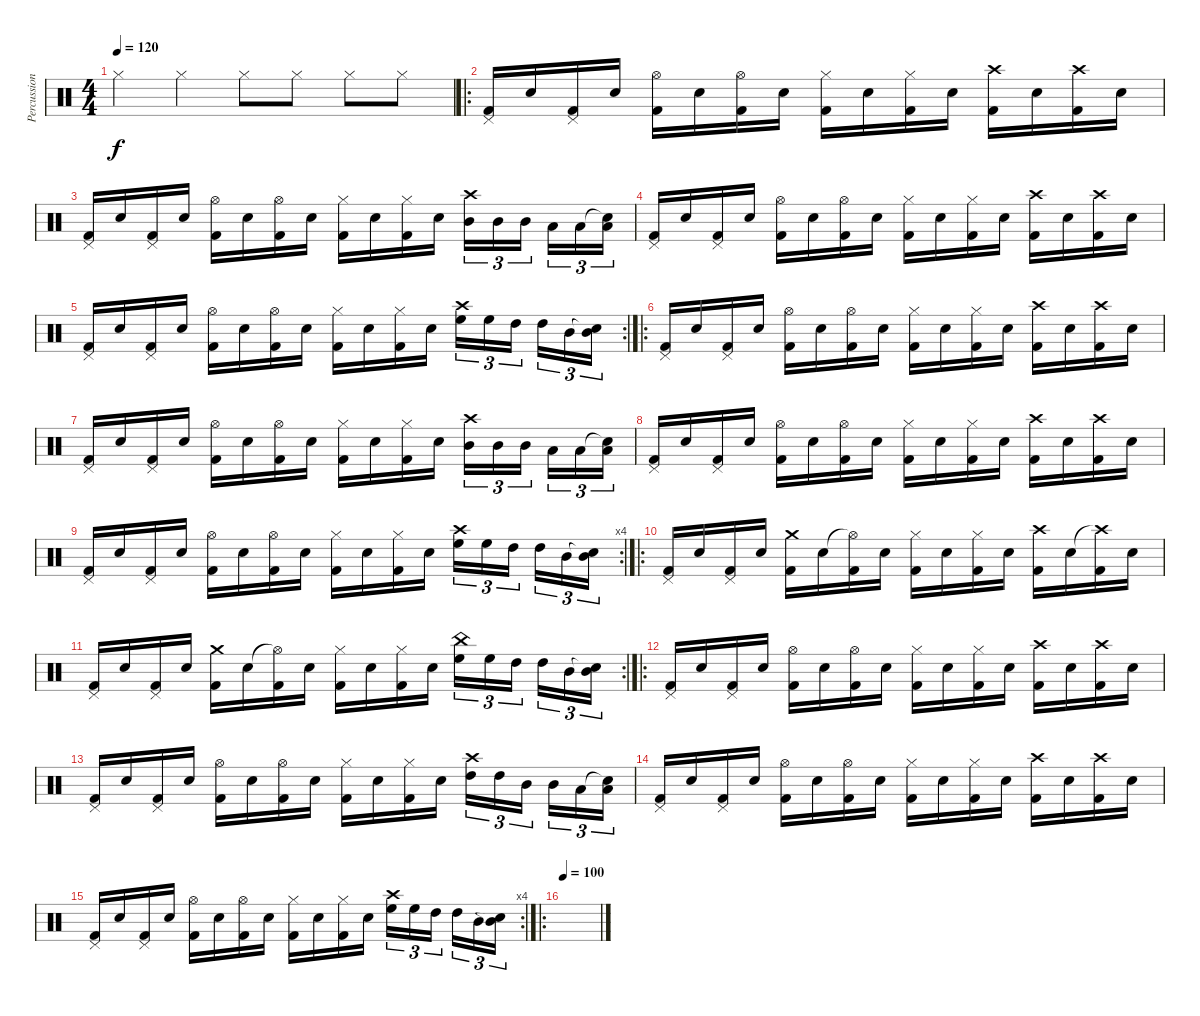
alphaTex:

\track ("Percussion" "Percussion") {instrument percussion}
\staff {score}
\articulation defaults
\ts (4 4)
\tempo 120
\clef neutral
\ks c "Hi-Hat (closed)".4{dy f} "Hi-Hat (closed)".4 "Hi-Hat (closed)".8 "Hi-Hat (closed)".8 "Hi-Hat (closed)".8 "Hi-Hat (closed)".8
|
\ro
("Pedal Hi-Hat (hit)" "Kick (hit) 2").16 "Snare (hit) 2".16 ("Pedal Hi-Hat (hit)" "Kick (hit) 2").16 "Snare (hit) 2".16 ("Hi-Hat (open)" "Kick (hit) 2").16 "Snare (hit) 2".16 ("Hi-Hat (open)" "Kick (hit) 2").16 "Snare (hit) 2".16 ("Hi-Hat (closed)" "Kick (hit) 2").16 "Snare (hit) 2".16 ("Hi-Hat (closed)" "Kick (hit) 2").16 "Snare (hit) 2".16 ("Crash high (hit)" "Kick (hit) 2").16 "Snare (hit) 2".16 ("Crash high (hit)" "Kick (hit) 2").16 "Snare (hit) 2".16 |
("Pedal Hi-Hat (hit)" "Kick (hit) 2").16 "Snare (hit) 2".16 ("Pedal Hi-Hat (hit)" "Kick (hit) 2").16 "Snare (hit) 2".16 ("Hi-Hat (open)" "Kick (hit) 2").16 "Snare (hit) 2".16 ("Hi-Hat (open)" "Kick (hit) 2").16 "Snare (hit) 2".16 ("Hi-Hat (closed)" "Kick (hit) 2").16 "Snare (hit) 2".16 ("Hi-Hat (closed)" "Kick (hit) 2").16 "Snare (hit) 2".16 ("Crash high (hit)" "Mid Tom (hit)").16{tu (3 2)} "Mid Tom (hit)".16{tu (3 2)} "Mid Tom (hit)".16{tu (3 2)} "Low Tom (hit)".16{tu (3 2)} "Low Tom (hit)".16{tu (3 2)} ("Snare (hit)"{t} "Low Tom (hit)").16{tu (3 2)} |
("Pedal Hi-Hat (hit)" "Kick (hit) 2").16 "Snare (hit) 2".16 ("Pedal Hi-Hat (hit)" "Kick (hit) 2").16 "Snare (hit) 2".16 ("Hi-Hat (open)" "Kick (hit) 2").16 "Snare (hit) 2".16 ("Hi-Hat (open)" "Kick (hit) 2").16 "Snare (hit) 2".16 ("Hi-Hat (closed)" "Kick (hit) 2").16 "Snare (hit) 2".16 ("Hi-Hat (closed)" "Kick (hit) 2").16 "Snare (hit) 2".16 ("Crash high (hit)" "Kick (hit) 2").16 "Snare (hit) 2".16 ("Crash high (hit)" "Kick (hit) 2").16 "Snare (hit) 2".16 |
\rc 2
("Pedal Hi-Hat (hit)" "Kick (hit) 2").16 "Snare (hit) 2".16 ("Pedal Hi-Hat (hit)" "Kick (hit) 2").16 "Snare (hit) 2".16 ("Hi-Hat (open)" "Kick (hit) 2").16 "Snare (hit) 2".16 ("Hi-Hat (open)" "Kick (hit) 2").16 "Snare (hit) 2".16 ("Hi-Hat (closed)" "Kick (hit) 2").16 "Snare (hit) 2".16 ("Hi-Hat (closed)" "Kick (hit) 2").16 "Snare (hit) 2".16 ("Crash high (hit)" "High Floor Tom (hit)").16{tu (3 2)} "High Floor Tom (hit)".16{tu (3 2)} "High Tom (hit)".16{tu (3 2)} "High Tom (hit)".16{tu (3 2)} "Mid Tom (hit)".16{tu (3 2)} ("Snare (hit)"{t} "Mid Tom (hit)").16{tu (3 2)} |
\ro
("Pedal Hi-Hat (hit)" "Kick (hit) 2").16 "Snare (hit) 2".16 ("Pedal Hi-Hat (hit)" "Kick (hit) 2").16 "Snare (hit) 2".16 ("Hi-Hat (open)" "Kick (hit) 2").16 "Snare (hit) 2".16 ("Hi-Hat (open)" "Kick (hit) 2").16 "Snare (hit) 2".16 ("Hi-Hat (closed)" "Kick (hit) 2").16 "Snare (hit) 2".16 ("Hi-Hat (closed)" "Kick (hit) 2").16 "Snare (hit) 2".16 ("Crash high (hit)" "Kick (hit) 2").16 "Snare (hit) 2".16 ("Crash high (hit)" "Kick (hit) 2").16 "Snare (hit) 2".16 |
("Pedal Hi-Hat (hit)" "Kick (hit) 2").16 "Snare (hit) 2".16 ("Pedal Hi-Hat (hit)" "Kick (hit) 2").16 "Snare (hit) 2".16 ("Hi-Hat (open)" "Kick (hit) 2").16 "Snare (hit) 2".16 ("Hi-Hat (open)" "Kick (hit) 2").16 "Snare (hit) 2".16 ("Hi-Hat (closed)" "Kick (hit) 2").16 "Snare (hit) 2".16 ("Hi-Hat (closed)" "Kick (hit) 2").16 "Snare (hit) 2".16 ("Crash high (hit)" "Mid Tom (hit)").16{tu (3 2)} "Mid Tom (hit)".16{tu (3 2)} "Mid Tom (hit)".16{tu (3 2)} "Low Tom (hit)".16{tu (3 2)} "Low Tom (hit)".16{tu (3 2)} ("Snare (hit)"{t} "Low Tom (hit)").16{tu (3 2)} |
("Pedal Hi-Hat (hit)" "Kick (hit) 2").16 "Snare (hit) 2".16 ("Pedal Hi-Hat (hit)" "Kick (hit) 2").16 "Snare (hit) 2".16 ("Hi-Hat (open)" "Kick (hit) 2").16 "Snare (hit) 2".16 ("Hi-Hat (open)" "Kick (hit) 2").16 "Snare (hit) 2".16 ("Hi-Hat (closed)" "Kick (hit) 2").16 "Snare (hit) 2".16 ("Hi-Hat (closed)" "Kick (hit) 2").16 "Snare (hit) 2".16 ("Crash high (hit)" "Kick (hit) 2").16 "Snare (hit) 2".16 ("Crash high (hit)" "Kick (hit) 2").16 "Snare (hit) 2".16 |
\rc 4
("Pedal Hi-Hat (hit)" "Kick (hit) 2").16 "Snare (hit) 2".16 ("Pedal Hi-Hat (hit)" "Kick (hit) 2").16 "Snare (hit) 2".16 ("Hi-Hat (open)" "Kick (hit) 2").16 "Snare (hit) 2".16 ("Hi-Hat (open)" "Kick (hit) 2").16 "Snare (hit) 2".16 ("Hi-Hat (closed)" "Kick (hit) 2").16 "Snare (hit) 2".16 ("Hi-Hat (closed)" "Kick (hit) 2").16 "Snare (hit) 2".16 ("Crash high (hit)" "High Floor Tom (hit)").16{tu (3 2)} "High Floor Tom (hit)".16{tu (3 2)} "High Tom (hit)".16{tu (3 2)} "High Tom (hit)".16{tu (3 2)} "Mid Tom (hit)".16{tu (3 2)} ("Snare (hit)"{t} "Mid Tom (hit)").16{tu (3 2)} |
\ro
("Pedal Hi-Hat (hit)" "Kick (hit) 2").16 "Snare (hit) 2".16 ("Pedal Hi-Hat (hit)" "Kick (hit) 2").16 "Snare (hit) 2".16 ("Crash medium (hit)" "Kick (hit) 2").16 "Snare (hit) 2".16 ("Hi-Hat (open)"{t} "Kick (hit) 2").16 "Snare (hit) 2".16 ("Hi-Hat (closed)" "Kick (hit) 2").16 "Snare (hit) 2".16 ("Hi-Hat (closed)" "Kick (hit) 2").16 "Snare (hit) 2".16 ("Crash high (hit)" "Kick (hit) 2").16 "Snare (hit) 2".16 ("Crash high (hit)"{t} "Kick (hit) 2").16 "Snare (hit) 2".16 |
\rc 2
("Pedal Hi-Hat (hit)" "Kick (hit) 2").16 "Snare (hit) 2".16 ("Pedal Hi-Hat (hit)" "Kick (hit) 2").16 "Snare (hit) 2".16 ("Crash medium (hit)" "Kick (hit) 2").16 "Snare (hit) 2".16 ("Hi-Hat (open)"{t} "Kick (hit) 2").16 "Snare (hit) 2".16 ("Hi-Hat (closed)" "Kick (hit) 2").16 "Snare (hit) 2".16 ("Hi-Hat (closed)" "Kick (hit) 2").16 "Snare (hit) 2".16 ("China (hit)" "High Floor Tom (hit)").16{tu (3 2)} "High Floor Tom (hit)".16{tu (3 2)} "High Tom (hit)".16{tu (3 2)} "High Tom (hit)".16{tu (3 2)} "Mid Tom (hit)".16{tu (3 2)} ("Snare (hit)"{t} "Mid Tom (hit)").16{tu (3 2)} |
\ro
("Pedal Hi-Hat (hit)" "Kick (hit) 2").16 "Snare (hit) 2".16 ("Pedal Hi-Hat (hit)" "Kick (hit) 2").16 "Snare (hit) 2".16 ("Hi-Hat (open)" "Kick (hit) 2").16 "Snare (hit) 2".16 ("Hi-Hat (open)" "Kick (hit) 2").16 "Snare (hit) 2".16 ("Hi-Hat (closed)" "Kick (hit) 2").16 "Snare (hit) 2".16 ("Hi-Hat (closed)" "Kick (hit) 2").16 "Snare (hit) 2".16 ("Crash high (hit)" "Kick (hit) 2").16 "Snare (hit) 2".16 ("Crash high (hit)" "Kick (hit) 2").16 "Snare (hit) 2".16 |
("Pedal Hi-Hat (hit)" "Kick (hit) 2").16 "Snare (hit) 2".16 ("Pedal Hi-Hat (hit)" "Kick (hit) 2").16 "Snare (hit) 2".16 ("Hi-Hat (open)" "Kick (hit) 2").16 "Snare (hit) 2".16 ("Hi-Hat (open)" "Kick (hit) 2").16 "Snare (hit) 2".16 ("Hi-Hat (closed)" "Kick (hit) 2").16 "Snare (hit) 2".16 ("Hi-Hat (closed)" "Kick (hit) 2").16 "Snare (hit) 2".16 ("Crash high (hit)" "High Tom (hit)").16{tu (3 2)} "High Tom (hit)".16{tu (3 2)} "Mid Tom (hit)".16{tu (3 2)} "Mid Tom (hit)".16{tu (3 2)} "Low Tom (hit)".16{tu (3 2)} ("Snare (hit)"{t} "Low Tom (hit)").16{tu (3 2)} |
("Pedal Hi-Hat (hit)" "Kick (hit) 2").16 "Snare (hit) 2".16 ("Pedal Hi-Hat (hit)" "Kick (hit) 2").16 "Snare (hit) 2".16 ("Hi-Hat (open)" "Kick (hit) 2").16 "Snare (hit) 2".16 ("Hi-Hat (open)" "Kick (hit) 2").16 "Snare (hit) 2".16 ("Hi-Hat (closed)" "Kick (hit) 2").16 "Snare (hit) 2".16 ("Hi-Hat (closed)" "Kick (hit) 2").16 "Snare (hit) 2".16 ("Crash high (hit)" "Kick (hit) 2").16 "Snare (hit) 2".16 ("Crash high (hit)" "Kick (hit) 2").16 "Snare (hit) 2".16 |
\rc 4
("Pedal Hi-Hat (hit)" "Kick (hit) 2").16 "Snare (hit) 2".16 ("Pedal Hi-Hat (hit)" "Kick (hit) 2").16 "Snare (hit) 2".16 ("Hi-Hat (open)" "Kick (hit) 2").16 "Snare (hit) 2".16 ("Hi-Hat (open)" "Kick (hit) 2").16 "Snare (hit) 2".16 ("Hi-Hat (closed)" "Kick (hit) 2").16 "Snare (hit) 2".16 ("Hi-Hat (closed)" "Kick (hit) 2").16 "Snare (hit) 2".16 ("Crash high (hit)" "High Floor Tom (hit)").16{tu (3 2)} "High Floor Tom (hit)".16{tu (3 2)} "High Tom (hit)".16{tu (3 2)} "High Tom (hit)".16{tu (3 2)} "Mid Tom (hit)".16{tu (3 2)} ("Snare (hit)"{t} "Mid Tom (hit)").16{tu (3 2)} |
\ro
\tempo 100
